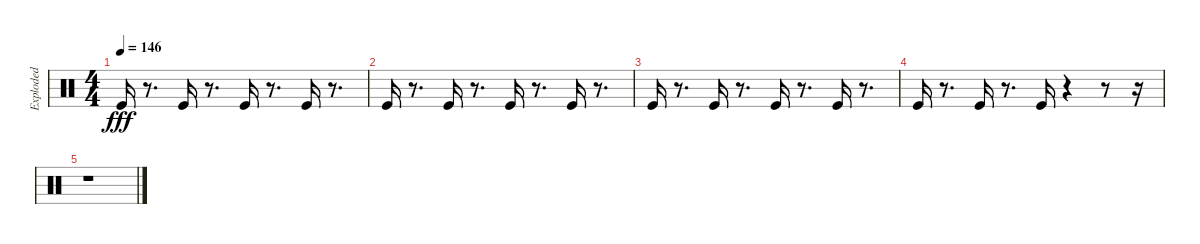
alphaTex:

\track ("Exploded" "Exploded") {instrument percussion}
\staff {score}
\articulation defaults
\ts (4 4)
\tempo 146
\clef neutral
\ks c "Kick (hit)".16{dy fff}
r.8{d} "Kick (hit)".16 r.8{d} "Kick (hit)".16 r.8{d} "Kick (hit)".16 r.8{d} |
"Kick (hit)".16 r.8{d} "Kick (hit)".16 r.8{d} "Kick (hit)".16 r.8{d} "Kick (hit)".16 r.8{d} |
"Kick (hit)".16 r.8{d} "Kick (hit)".16 r.8{d} "Kick (hit)".16 r.8{d} "Kick (hit)".16 r.8{d} |
"Kick (hit)".16 r.8{d} "Kick (hit)".16 r.8{d} "Kick (hit)".16 r.4 r.8 r.16 |
r.1
